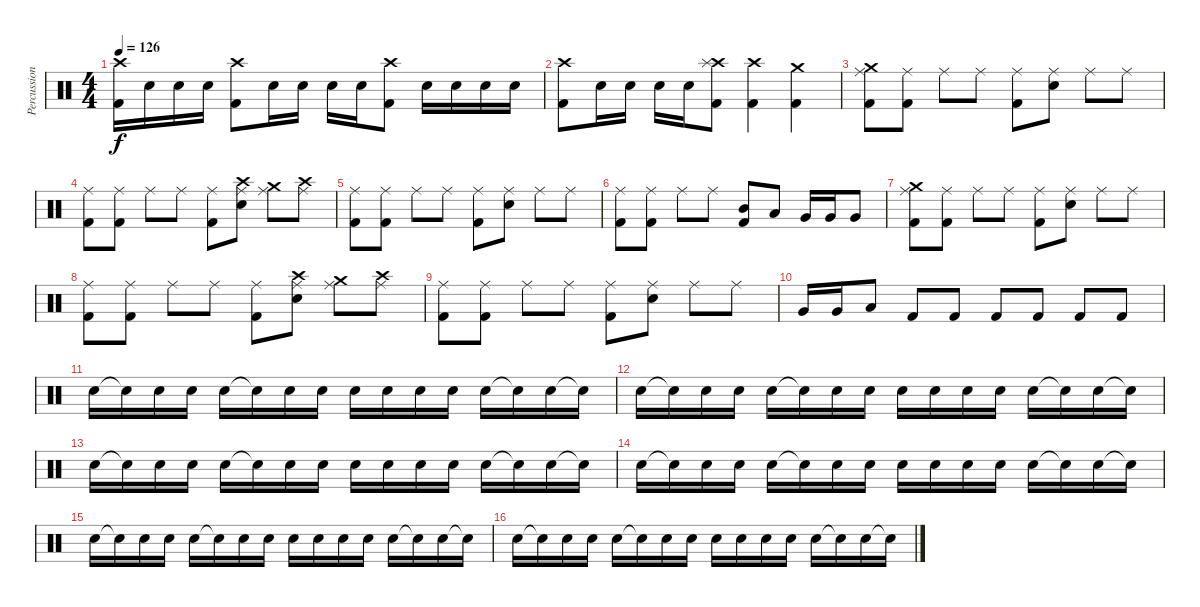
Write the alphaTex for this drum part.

\track ("Percussions" "Percussion") {instrument percussion}
\staff {score}
\articulation defaults
\ts (4 4)
\tempo 126
\clef neutral
\ks c
("Crash high (hit)" "Kick (hit) 2").16{dy f} "Electric Snare (hit)".16 "Electric Snare (hit)".16 "Electric Snare (hit)".16 ("Crash high (hit)" "Kick (hit) 2").8 "Electric Snare (hit)".16 "Electric Snare (hit)".16 "Electric Snare (hit)".16 "Electric Snare (hit)".16 ("Crash high (hit)" "Kick (hit) 2").8 "Electric Snare (hit)".16 "Electric Snare (hit)".16 "Electric Snare (hit)".16 "Electric Snare (hit)".16 |
("Crash high (hit)" "Kick (hit) 2").8 "Electric Snare (hit)".16 "Electric Snare (hit)".16 "Electric Snare (hit)".16 "Electric Snare (hit)".16 ("Crash high (hit)" "Splash (hit)" "Kick (hit) 2").8 ("Crash high (hit)" "Kick (hit) 2").4 ("Crash medium (hit)" "Kick (hit) 2").4 |
("Ride (middle)" "Crash medium (hit)" "Kick (hit) 2").8 ("Ride (middle)" "Kick (hit) 2").8 "Ride (middle)".8 "Ride (middle)".8 ("Ride (middle)" "Kick (hit) 2").8 ("Ride (middle)" "Electric Snare (hit)").8 "Ride (middle)".8 "Ride (middle)".8 |
("Ride (middle)" "Kick (hit) 2").8 ("Ride (middle)" "Kick (hit) 2").8 "Ride (middle)".8 "Ride (middle)".8 ("Ride (middle)" "Kick (hit) 2").8 ("Ride (middle)" "Crash high (hit)" "Electric Snare (hit)").8 ("Ride (middle)" "Crash medium (hit)").8 ("Ride (middle)" "Crash high (hit)").8 |
("Ride (middle)" "Kick (hit) 2").8 ("Ride (middle)" "Kick (hit) 2").8 "Ride (middle)".8 "Ride (middle)".8 ("Ride (middle)" "Kick (hit) 2").8 ("Ride (middle)" "Electric Snare (hit)").8 "Ride (middle)".8 "Ride (middle)".8 |
("Ride (middle)" "Kick (hit) 2").8 ("Ride (middle)" "Kick (hit) 2").8 "Ride (middle)".8 "Ride (middle)".8 ("Mid Tom (hit)" "Kick (hit) 2").8 "Low Tom (hit)".8 "Very Low Tom (hit)".16 "Very Low Tom (hit)".16 "Very Low Tom (hit)".8 |
("Ride (middle)" "Crash medium (hit)" "Kick (hit) 2").8 ("Ride (middle)" "Kick (hit) 2").8 "Ride (middle)".8 "Ride (middle)".8 ("Ride (middle)" "Kick (hit) 2").8 ("Ride (middle)" "Electric Snare (hit)").8 "Ride (middle)".8 "Ride (middle)".8 |
("Ride (middle)" "Kick (hit) 2").8 ("Ride (middle)" "Kick (hit) 2").8 "Ride (middle)".8 "Ride (middle)".8 ("Ride (middle)" "Kick (hit) 2").8 ("Ride (middle)" "Crash high (hit)" "Electric Snare (hit)").8 ("Ride (middle)" "Crash medium (hit)").8 ("Ride (middle)" "Crash high (hit)").8 |
("Ride (middle)" "Kick (hit) 2").8 ("Ride (middle)" "Kick (hit) 2").8 "Ride (middle)".8 "Ride (middle)".8 ("Ride (middle)" "Kick (hit) 2").8 ("Ride (middle)" "Electric Snare (hit)").8 "Ride (middle)".8 "Ride (middle)".8 |
"Very Low Tom (hit)".16 "Very Low Tom (hit)".16 "Low Floor Tom (hit)".8 "Kick (hit) 2".8 "Kick (hit) 2".8 "Kick (hit) 2".8 "Kick (hit) 2".8 "Kick (hit) 2".8 "Kick (hit) 2".8 |
"Electric Snare (hit)".16 "Snare (hit)"{t}.16 "Electric Snare (hit)".16 "Electric Snare (hit)".16 "Electric Snare (hit)".16 "Snare (hit)"{t}.16 "Electric Snare (hit)".16 "Electric Snare (hit)".16 "Electric Snare (hit)".16 "Electric Snare (hit)".16 "Electric Snare (hit)".16 "Electric Snare (hit)".16 "Electric Snare (hit)".16 "Snare (hit)"{t}.16 "Electric Snare (hit)".16 "Snare (hit)"{t}.16 |
"Electric Snare (hit)".16 "Snare (hit)"{t}.16 "Electric Snare (hit)".16 "Electric Snare (hit)".16 "Electric Snare (hit)".16 "Snare (hit)"{t}.16 "Electric Snare (hit)".16 "Electric Snare (hit)".16 "Electric Snare (hit)".16 "Electric Snare (hit)".16 "Electric Snare (hit)".16 "Electric Snare (hit)".16 "Electric Snare (hit)".16 "Snare (hit)"{t}.16 "Electric Snare (hit)".16 "Snare (hit)"{t}.16 |
"Electric Snare (hit)".16 "Snare (hit)"{t}.16 "Electric Snare (hit)".16 "Electric Snare (hit)".16 "Electric Snare (hit)".16 "Snare (hit)"{t}.16 "Electric Snare (hit)".16 "Electric Snare (hit)".16 "Electric Snare (hit)".16 "Electric Snare (hit)".16 "Electric Snare (hit)".16 "Electric Snare (hit)".16 "Electric Snare (hit)".16 "Snare (hit)"{t}.16 "Electric Snare (hit)".16 "Snare (hit)"{t}.16 |
"Electric Snare (hit)".16 "Snare (hit)"{t}.16 "Electric Snare (hit)".16 "Electric Snare (hit)".16 "Electric Snare (hit)".16 "Snare (hit)"{t}.16 "Electric Snare (hit)".16 "Electric Snare (hit)".16 "Electric Snare (hit)".16 "Electric Snare (hit)".16 "Electric Snare (hit)".16 "Electric Snare (hit)".16 "Electric Snare (hit)".16 "Snare (hit)"{t}.16 "Electric Snare (hit)".16 "Snare (hit)"{t}.16 |
"Electric Snare (hit)".16 "Snare (hit)"{t}.16 "Electric Snare (hit)".16 "Electric Snare (hit)".16 "Electric Snare (hit)".16 "Snare (hit)"{t}.16 "Electric Snare (hit)".16 "Electric Snare (hit)".16 "Electric Snare (hit)".16 "Electric Snare (hit)".16 "Electric Snare (hit)".16 "Electric Snare (hit)".16 "Electric Snare (hit)".16 "Snare (hit)"{t}.16 "Electric Snare (hit)".16 "Snare (hit)"{t}.16 |
"Electric Snare (hit)".16 "Snare (hit)"{t}.16 "Electric Snare (hit)".16 "Electric Snare (hit)".16 "Electric Snare (hit)".16 "Snare (hit)"{t}.16 "Electric Snare (hit)".16 "Electric Snare (hit)".16 "Electric Snare (hit)".16 "Electric Snare (hit)".16 "Electric Snare (hit)".16 "Electric Snare (hit)".16 "Electric Snare (hit)".16 "Snare (hit)"{t}.16 "Electric Snare (hit)".16 "Snare (hit)"{t}.16
